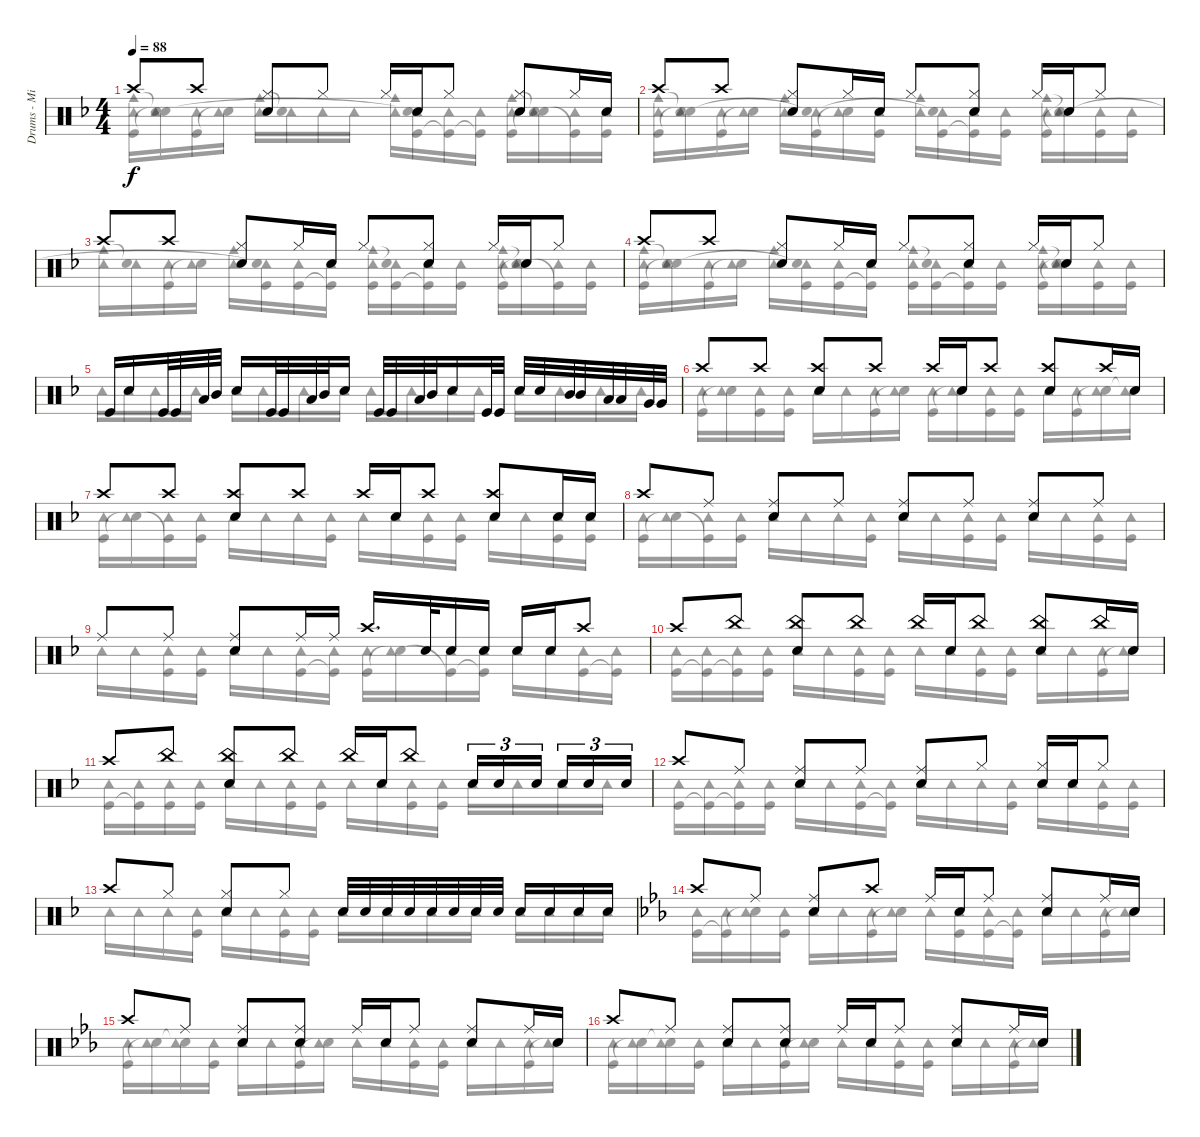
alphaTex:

\track ("Drums - Mike Portnoy" "Drums - Mi") {instrument percussion}
\staff {score}
\articulation defaults
\voice
\ts (4 4)
\tempo 88
\clef neutral
\ks f "Crash high (hit)".8{dy f} "Crash high (hit)".8
("Hi-Hat (closed)" "Snare (hit) 2").8 "Hi-Hat (closed)".8 "Hi-Hat (closed)".16 "Snare (hit) 2".16 "Hi-Hat (closed)".8 ("Hi-Hat (closed)" "Snare (hit) 2").8 "Hi-Hat (closed)".16 "Snare (hit) 2".16 |
"Crash high (hit)".8 "Crash high (hit)".8 ("Hi-Hat (closed)" "Snare (hit) 2").8 "Hi-Hat (closed)".16 "Snare (hit) 2".16 "Hi-Hat (closed)".8 ("Hi-Hat (closed)" "Snare (hit) 2").8 "Hi-Hat (closed)".16 "Snare (hit) 2".16 "Hi-Hat (closed)".8 |
"Crash high (hit)".8 "Crash high (hit)".8 ("Hi-Hat (closed)" "Snare (hit) 2").8 "Hi-Hat (closed)".16 "Snare (hit) 2".16 "Hi-Hat (closed)".8 ("Hi-Hat (closed)" "Snare (hit) 2").8 "Hi-Hat (closed)".16 "Snare (hit) 2".16 "Hi-Hat (closed)".8 |
"Crash high (hit)".8 "Crash high (hit)".8 ("Hi-Hat (closed)" "Snare (hit) 2").8 "Hi-Hat (closed)".16 "Snare (hit) 2".16 "Hi-Hat (closed)".8 ("Hi-Hat (closed)" "Snare (hit) 2").8 "Hi-Hat (closed)".16 "Snare (hit) 2".16 "Hi-Hat (closed)".8 |
"Kick (hit)".16 "Snare (hit) 2".16 "Kick (hit)".32 "Kick (hit)".32 "Low Tom (hit)".32 "Mid Tom (hit)".32 "Snare (hit) 2".16 "Kick (hit)".32 "Kick (hit)".32 "Low Tom (hit)".32 "Mid Tom (hit)".32 "Snare (hit) 2".16 "Kick (hit)".32 "Kick (hit)".32 "Low Tom (hit)".32 "Mid Tom (hit)".32 "Snare (hit) 2".16 "Kick (hit)".32 "Kick (hit)".32 "Snare (hit) 2".32 "Snare (hit) 2".32 "Mid Tom (hit)".32 "Mid Tom (hit)".32 "Low Tom (hit)".32 "Low Tom (hit)".32 "Very Low Tom (hit)".32 "Very Low Tom (hit)".32 |
"Crash high (hit)".8 "Crash high (hit)".8 ("Crash high (hit)" "Snare (hit) 2").8 "Crash high (hit)".8 "Crash high (hit)".16 "Snare (hit) 2".16 "Crash high (hit)".8 ("Crash high (hit)" "Snare (hit) 2").8 "Crash high (hit)".16 "Snare (hit) 2".16 |
"Crash high (hit)".8 "Crash high (hit)".8 ("Crash high (hit)" "Snare (hit) 2").8 "Crash high (hit)".8 "Crash high (hit)".16 "Snare (hit) 2".16 "Crash high (hit)".8 ("Crash high (hit)" "Snare (hit) 2").8 "Snare (hit) 2".16 "Snare (hit) 2".16 |
"Crash high (hit)".8 "Ride (middle)".8 ("Ride (middle)" "Snare (hit) 2").8 "Ride (middle)".8 ("Ride (middle)" "Snare (hit) 2").8 "Ride (middle)".8 ("Ride (middle)" "Snare (hit) 2").8 "Ride (middle)".8 |
"Ride (middle)".8 "Ride (middle)".8 ("Ride (middle)" "Snare (hit) 2").8 "Ride (middle)".16 "Ride (middle)".16 "Crash high (hit)".16{d} "Snare (hit) 2".32 "Snare (hit) 2".16 "Snare (hit) 2".16 "Snare (hit) 2".16 "Snare (hit) 2".16 "Crash high (hit)".8 |
"Crash high (hit)".8 "China (hit)".8 ("China (hit)" "Snare (hit) 2").8 "China (hit)".8 "China (hit)".16 "Snare (hit) 2".16 "China (hit)".8 ("China (hit)" "Snare (hit) 2").8 "China (hit)".16 "Snare (hit) 2".16 |
"Crash high (hit)".8 "China (hit)".8 ("China (hit)" "Snare (hit) 2").8 "China (hit)".8 "China (hit)".16 "Snare (hit) 2".16 "China (hit)".8 "Snare (hit) 2".16{tu (3 2)} "Snare (hit) 2".16{tu (3 2)} "Snare (hit) 2".16{tu (3 2) beam splitsecondary} "Snare (hit) 2".16{tu (3 2)} "Snare (hit) 2".16{tu (3 2)} "Snare (hit) 2".16{tu (3 2)} |
"Crash high (hit)".8 "Ride (middle)".8 ("Ride (middle)" "Snare (hit) 2").8 "Ride (middle)".8 ("Ride (middle)" "Snare (hit) 2").8 "Hi-Hat (closed)".8 ("Hi-Hat (closed)" "Snare (hit) 2").16 "Snare (hit) 2".16 "Hi-Hat (closed)".8 |
"Crash high (hit)".8 "Hi-Hat (closed)".8 ("Hi-Hat (closed)" "Snare (hit) 2").8 "Hi-Hat (closed)".8 "Snare (hit) 2".32 "Snare (hit) 2".32 "Snare (hit) 2".32 "Snare (hit) 2".32 "Snare (hit) 2".32 "Snare (hit) 2".32 "Snare (hit) 2".32 "Snare (hit) 2".32 "Snare (hit) 2".16 "Snare (hit) 2".16 "Snare (hit) 2".16 "Snare (hit) 2".16 |
\ks eb "Crash high (hit)".8 "Ride (middle)".8
("Ride (middle)" "Snare (hit) 2").8 "Crash high (hit)".8 "Ride (middle)".16 "Snare (hit) 2".16 "Ride (middle)".8 ("Ride (middle)" "Snare (hit) 2").8 "Ride (middle)".16 "Snare (hit) 2".16 |
"Crash high (hit)".8 "Ride (middle)".8 ("Ride (middle)" "Snare (hit) 2").8 ("Ride (middle)" "Snare (hit) 2").8 "Ride (middle)".16 "Snare (hit) 2".16 "Ride (middle)".8 ("Ride (middle)" "Snare (hit) 2").8 "Ride (middle)".16 "Snare (hit) 2".16 |
"Crash high (hit)".8 "Ride (middle)".8 ("Ride (middle)" "Snare (hit) 2").8 ("Ride (middle)" "Snare (hit) 2").8 "Ride (middle)".16 "Snare (hit) 2".16 "Ride (middle)".8 ("Ride (middle)" "Snare (hit) 2").8 "Ride (middle)".16 "Snare (hit) 2".16
\voice
\clef neutral
\ottava regular
\simile none
\ks f
("Kick (hit)" "Tambourine (hit)" "Cowbell medium (hit)").16{dy f} ("Snare (hit)"{t} "Tambourine (hit)" "Snare (hit)"{t}).16 ("Kick (hit)" "Tambourine (hit)").16 ("Snare (hit)"{t} "Tambourine (hit)").16 ("Tambourine (hit)" "Cowbell medium (hit)").16 ("Tambourine (hit)" "Snare (hit)"{t}).16 "Tambourine (hit)".16 "Tambourine (hit)".16 ("Tambourine (hit)" "Cowbell medium (hit)").16 ("Kick (hit)" "Tambourine (hit)" "Snare (hit)"{t}).16 ("Kick (hit)"{t} "Tambourine (hit)").16 ("Kick (hit)"{t} "Tambourine (hit)").16 ("Kick (hit)" "Tambourine (hit)" "Cowbell medium (hit)").16 ("Snare (hit)"{t} "Tambourine (hit)" "Snare (hit)"{t}).16 ("Kick (hit)"{t} "Tambourine (hit)").16 ("Kick (hit)" "Tambourine (hit)").16 |
("Kick (hit)" "Tambourine (hit)" "Cowbell medium (hit)").16 ("Snare (hit)"{t} "Tambourine (hit)" "Snare (hit)"{t}).16 ("Kick (hit)" "Tambourine (hit)").16 ("Snare (hit)"{t} "Tambourine (hit)").16 ("Tambourine (hit)" "Cowbell medium (hit)").16 ("Kick (hit)" "Tambourine (hit)" "Snare (hit)"{t}).16 ("Snare (hit)"{t} "Tambourine (hit)").16 ("Kick (hit)" "Tambourine (hit)").16 ("Tambourine (hit)" "Cowbell medium (hit)").16 ("Kick (hit)" "Tambourine (hit)" "Snare (hit)"{t}).16 ("Kick (hit)"{t} "Tambourine (hit)").16 ("Kick (hit)" "Tambourine (hit)").16 ("Kick (hit)" "Tambourine (hit)" "Cowbell medium (hit)").16 ("Snare (hit)"{t} "Tambourine (hit)" "Snare (hit)"{t}).16 ("Kick (hit)" "Tambourine (hit)").16 ("Kick (hit)" "Tambourine (hit)").16 |
("Tambourine (hit)" "Cowbell medium (hit)").16 ("Tambourine (hit)" "Snare (hit)"{t}).16 ("Kick (hit)" "Tambourine (hit)").16 ("Snare (hit)"{t} "Tambourine (hit)").16 ("Tambourine (hit)" "Cowbell medium (hit)").16 ("Kick (hit)" "Tambourine (hit)" "Snare (hit)"{t}).16 ("Kick (hit)" "Tambourine (hit)").16 ("Kick (hit)"{t} "Tambourine (hit)").16 ("Kick (hit)" "Tambourine (hit)" "Cowbell medium (hit)").16 ("Kick (hit)" "Tambourine (hit)" "Snare (hit)"{t}).16 ("Kick (hit)"{t} "Tambourine (hit)").16 ("Kick (hit)" "Tambourine (hit)").16 ("Kick (hit)" "Tambourine (hit)" "Cowbell medium (hit)").16 ("Snare (hit)"{t} "Tambourine (hit)" "Snare (hit)"{t}).16 ("Kick (hit)"{t} "Tambourine (hit)").16 ("Kick (hit)" "Tambourine (hit)").16 |
("Kick (hit)" "Tambourine (hit)" "Cowbell medium (hit)").16 ("Snare (hit)"{t} "Tambourine (hit)" "Snare (hit)"{t}).16 ("Kick (hit)" "Tambourine (hit)").16 ("Snare (hit)"{t} "Tambourine (hit)").16 ("Tambourine (hit)" "Cowbell medium (hit)").16 ("Kick (hit)" "Tambourine (hit)" "Snare (hit)"{t}).16 ("Kick (hit)" "Tambourine (hit)").16 ("Kick (hit)"{t} "Tambourine (hit)").16 ("Kick (hit)" "Tambourine (hit)" "Cowbell medium (hit)").16 ("Kick (hit)" "Tambourine (hit)" "Snare (hit)"{t}).16 ("Kick (hit)"{t} "Tambourine (hit)").16 ("Kick (hit)" "Tambourine (hit)").16 ("Kick (hit)" "Tambourine (hit)" "Cowbell medium (hit)").16 ("Snare (hit)"{t} "Tambourine (hit)" "Snare (hit)"{t}).16 ("Kick (hit)" "Tambourine (hit)").16 ("Kick (hit)" "Tambourine (hit)").16 |
"Tambourine (hit)".16 "Tambourine (hit)".16 "Tambourine (hit)".16 "Tambourine (hit)".16 "Tambourine (hit)".16 "Tambourine (hit)".16 "Tambourine (hit)".16 "Tambourine (hit)".16 "Tambourine (hit)".16 "Tambourine (hit)".16 "Tambourine (hit)".16 "Tambourine (hit)".16 "Tambourine (hit)".16 "Tambourine (hit)".16 "Tambourine (hit)".16 "Tambourine (hit)".16 |
("Kick (hit)" "Tambourine (hit)").16 ("Snare (hit)"{t} "Tambourine (hit)").16 ("Kick (hit)" "Tambourine (hit)").16 ("Kick (hit)" "Tambourine (hit)").16 "Tambourine (hit)".16 "Tambourine (hit)".16 ("Kick (hit)" "Tambourine (hit)").16 ("Snare (hit)"{t} "Tambourine (hit)").16 ("Kick (hit)" "Tambourine (hit)").16 ("Snare (hit)"{t} "Tambourine (hit)").16 ("Kick (hit)" "Tambourine (hit)").16 ("Kick (hit)" "Tambourine (hit)").16 "Tambourine (hit)".16 ("Kick (hit)" "Tambourine (hit)").16 ("Snare (hit)"{t} "Tambourine (hit)").16 ("Snare (hit)"{t} "Tambourine (hit)").16 |
("Kick (hit)" "Tambourine (hit)").16 ("Snare (hit)"{t} "Tambourine (hit)").16 ("Kick (hit)"{t} "Tambourine (hit)").16 ("Kick (hit)" "Tambourine (hit)").16 "Tambourine (hit)".16 "Tambourine (hit)".16 "Tambourine (hit)".16 ("Kick (hit)" "Tambourine (hit)").16 "Tambourine (hit)".16 "Tambourine (hit)".16 ("Kick (hit)" "Tambourine (hit)").16 ("Kick (hit)" "Tambourine (hit)").16 "Tambourine (hit)".16 "Tambourine (hit)".16 ("Kick (hit)" "Tambourine (hit)").16 ("Kick (hit)" "Tambourine (hit)").16 |
("Kick (hit)" "Tambourine (hit)").16 ("Snare (hit)"{t} "Tambourine (hit)").16 ("Kick (hit)"{t} "Tambourine (hit)").16 ("Kick (hit)" "Tambourine (hit)").16 "Tambourine (hit)".16 "Tambourine (hit)".16 "Tambourine (hit)".16 ("Kick (hit)" "Tambourine (hit)").16 "Tambourine (hit)".16 "Tambourine (hit)".16 ("Kick (hit)" "Tambourine (hit)").16 ("Kick (hit)" "Tambourine (hit)").16 "Tambourine (hit)".16 "Tambourine (hit)".16 ("Kick (hit)" "Tambourine (hit)").16 ("Kick (hit)" "Tambourine (hit)").16 |
"Tambourine (hit)".16 "Tambourine (hit)".16 ("Kick (hit)" "Tambourine (hit)").16 ("Kick (hit)" "Tambourine (hit)").16 "Tambourine (hit)".16 "Tambourine (hit)".16 ("Kick (hit)" "Tambourine (hit)").16 ("Kick (hit)"{t} "Tambourine (hit)").16 ("Kick (hit)" "Tambourine (hit)").16 ("Snare (hit)"{t} "Tambourine (hit)").16 ("Kick (hit)"{t} "Tambourine (hit)").16 ("Kick (hit)"{t} "Tambourine (hit)").16 "Tambourine (hit)".16 "Tambourine (hit)".16 ("Kick (hit)" "Tambourine (hit)").16 ("Kick (hit)"{t} "Tambourine (hit)").16 |
("Kick (hit)" "Tambourine (hit)").16 ("Kick (hit)"{t} "Tambourine (hit)").16 ("Kick (hit)"{t} "Tambourine (hit)").16 ("Kick (hit)" "Tambourine (hit)").16 "Tambourine (hit)".16 "Tambourine (hit)".16 ("Kick (hit)" "Tambourine (hit)").16 ("Kick (hit)" "Tambourine (hit)").16 "Tambourine (hit)".16 "Tambourine (hit)".16 ("Kick (hit)" "Tambourine (hit)").16 ("Kick (hit)" "Tambourine (hit)").16 "Tambourine (hit)".16 "Tambourine (hit)".16 ("Kick (hit)" "Tambourine (hit)").16 ("Snare (hit)"{t} "Tambourine (hit)").16 |
("Kick (hit)" "Tambourine (hit)").16 ("Kick (hit)"{t} "Tambourine (hit)").16 ("Kick (hit)" "Tambourine (hit)").16 ("Kick (hit)" "Tambourine (hit)").16 "Tambourine (hit)".16 "Tambourine (hit)".16 ("Kick (hit)" "Tambourine (hit)").16 ("Kick (hit)" "Tambourine (hit)").16 "Tambourine (hit)".16 "Tambourine (hit)".16 ("Kick (hit)" "Tambourine (hit)").16 ("Kick (hit)" "Tambourine (hit)").16 "Tambourine (hit)".16 "Tambourine (hit)".16 "Tambourine (hit)".16 "Tambourine (hit)".16 |
("Kick (hit)" "Tambourine (hit)").16 ("Kick (hit)"{t} "Tambourine (hit)").16 ("Kick (hit)"{t} "Tambourine (hit)").16 ("Kick (hit)" "Tambourine (hit)").16 "Tambourine (hit)".16 "Tambourine (hit)".16 ("Kick (hit)" "Tambourine (hit)").16 ("Kick (hit)"{t} "Tambourine (hit)").16 "Tambourine (hit)".16 "Tambourine (hit)".16 "Tambourine (hit)".16 ("Kick (hit)" "Tambourine (hit)").16 "Tambourine (hit)".16 "Tambourine (hit)".16 ("Kick (hit)" "Tambourine (hit)").16 ("Kick (hit)" "Tambourine (hit)").16 |
"Tambourine (hit)".16 "Tambourine (hit)".16 "Tambourine (hit)".16 ("Kick (hit)" "Tambourine (hit)").16 "Tambourine (hit)".16 "Tambourine (hit)".16 ("Kick (hit)" "Tambourine (hit)").16 ("Kick (hit)" "Tambourine (hit)").16 "Tambourine (hit)".16 "Tambourine (hit)".16 "Tambourine (hit)".16 "Tambourine (hit)".16 "Tambourine (hit)".16 "Tambourine (hit)".16 "Tambourine (hit)".16 "Tambourine (hit)".16 |
\ks eb
("Kick (hit)" "Tambourine (hit)").16 ("Kick (hit)"{t} "Tambourine (hit)").16 ("Snare (hit)"{t} "Tambourine (hit)").16 ("Kick (hit)" "Tambourine (hit)").16 "Tambourine (hit)".16 "Tambourine (hit)".16 ("Kick (hit)" "Tambourine (hit)").16 ("Snare (hit)"{t} "Tambourine (hit)").16 "Tambourine (hit)".16 ("Kick (hit)" "Tambourine (hit)").16 ("Kick (hit)" "Tambourine (hit)").16 ("Kick (hit)"{t} "Tambourine (hit)").16 "Tambourine (hit)".16 "Tambourine (hit)".16 ("Kick (hit)" "Tambourine (hit)").16 ("Snare (hit)"{t} "Tambourine (hit)").16 |
("Kick (hit)" "Tambourine (hit)").16 ("Snare (hit)"{t} "Tambourine (hit)").16 ("Snare (hit)"{t} "Tambourine (hit)").16 ("Kick (hit)" "Tambourine (hit)").16 "Tambourine (hit)".16 "Tambourine (hit)".16 ("Kick (hit)" "Tambourine (hit)").16 ("Snare (hit)"{t} "Tambourine (hit)").16 "Tambourine (hit)".16 "Tambourine (hit)".16 ("Kick (hit)" "Tambourine (hit)").16 ("Kick (hit)" "Tambourine (hit)").16 "Tambourine (hit)".16 "Tambourine (hit)".16 ("Kick (hit)" "Tambourine (hit)").16 ("Snare (hit)"{t} "Tambourine (hit)").16 |
("Kick (hit)" "Tambourine (hit)").16 ("Snare (hit)"{t} "Tambourine (hit)").16 ("Snare (hit)"{t} "Tambourine (hit)").16 ("Kick (hit)" "Tambourine (hit)").16 "Tambourine (hit)".16 "Tambourine (hit)".16 ("Kick (hit)" "Tambourine (hit)").16 ("Snare (hit)"{t} "Tambourine (hit)").16 "Tambourine (hit)".16 "Tambourine (hit)".16 ("Kick (hit)" "Tambourine (hit)").16 ("Kick (hit)" "Tambourine (hit)").16 "Tambourine (hit)".16 "Tambourine (hit)".16 ("Kick (hit)" "Tambourine (hit)").16 ("Snare (hit)"{t} "Tambourine (hit)").16
